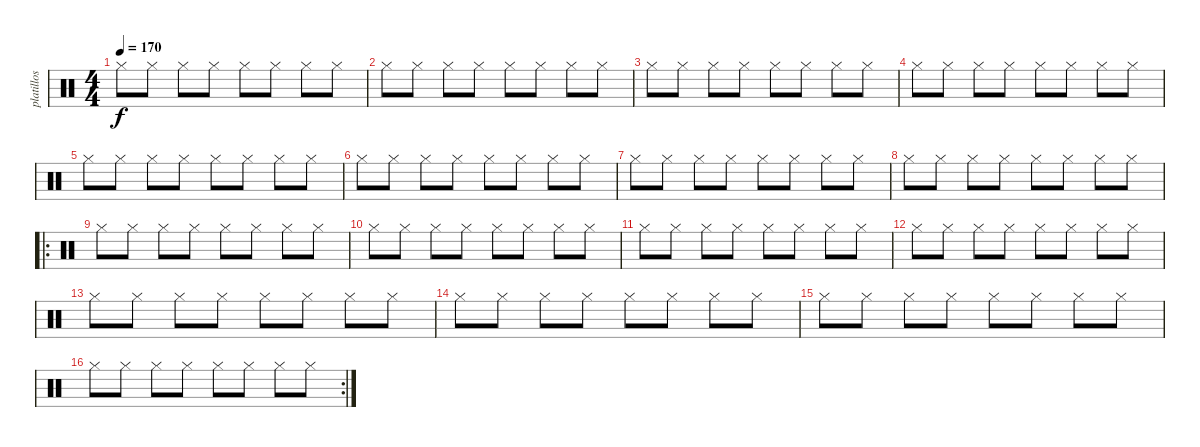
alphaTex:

\track ("platillos" "platillos") {instrument percussion}
\staff {score}
\articulation defaults
\ts (4 4)
\tempo 170
\clef neutral
\ks c "Hi-Hat (closed)".8{dy f} "Hi-Hat (closed)".8 "Hi-Hat (closed)".8 "Hi-Hat (closed)".8 "Hi-Hat (closed)".8 "Hi-Hat (closed)".8 "Hi-Hat (closed)".8 "Hi-Hat (closed)".8
|
"Hi-Hat (closed)".8 "Hi-Hat (closed)".8 "Hi-Hat (closed)".8 "Hi-Hat (closed)".8 "Hi-Hat (closed)".8 "Hi-Hat (closed)".8 "Hi-Hat (closed)".8 "Hi-Hat (closed)".8 |
"Hi-Hat (closed)".8 "Hi-Hat (closed)".8 "Hi-Hat (closed)".8 "Hi-Hat (closed)".8 "Hi-Hat (closed)".8 "Hi-Hat (closed)".8 "Hi-Hat (closed)".8 "Hi-Hat (closed)".8 |
"Hi-Hat (closed)".8 "Hi-Hat (closed)".8 "Hi-Hat (closed)".8 "Hi-Hat (closed)".8 "Hi-Hat (closed)".8 "Hi-Hat (closed)".8 "Hi-Hat (closed)".8 "Hi-Hat (closed)".8 |
"Hi-Hat (closed)".8 "Hi-Hat (closed)".8 "Hi-Hat (closed)".8 "Hi-Hat (closed)".8 "Hi-Hat (closed)".8 "Hi-Hat (closed)".8 "Hi-Hat (closed)".8 "Hi-Hat (closed)".8 |
"Hi-Hat (closed)".8 "Hi-Hat (closed)".8 "Hi-Hat (closed)".8 "Hi-Hat (closed)".8 "Hi-Hat (closed)".8 "Hi-Hat (closed)".8 "Hi-Hat (closed)".8 "Hi-Hat (closed)".8 |
"Hi-Hat (closed)".8 "Hi-Hat (closed)".8 "Hi-Hat (closed)".8 "Hi-Hat (closed)".8 "Hi-Hat (closed)".8 "Hi-Hat (closed)".8 "Hi-Hat (closed)".8 "Hi-Hat (closed)".8 |
"Hi-Hat (closed)".8 "Hi-Hat (closed)".8 "Hi-Hat (closed)".8 "Hi-Hat (closed)".8 "Hi-Hat (closed)".8 "Hi-Hat (closed)".8 "Hi-Hat (closed)".8 "Hi-Hat (closed)".8 |
\ro "Hi-Hat (closed)".8 "Hi-Hat (closed)".8 "Hi-Hat (closed)".8 "Hi-Hat (closed)".8 "Hi-Hat (closed)".8 "Hi-Hat (closed)".8 "Hi-Hat (closed)".8 "Hi-Hat (closed)".8
|
"Hi-Hat (closed)".8 "Hi-Hat (closed)".8 "Hi-Hat (closed)".8 "Hi-Hat (closed)".8 "Hi-Hat (closed)".8 "Hi-Hat (closed)".8 "Hi-Hat (closed)".8 "Hi-Hat (closed)".8 |
"Hi-Hat (closed)".8 "Hi-Hat (closed)".8 "Hi-Hat (closed)".8 "Hi-Hat (closed)".8 "Hi-Hat (closed)".8 "Hi-Hat (closed)".8 "Hi-Hat (closed)".8 "Hi-Hat (closed)".8 |
"Hi-Hat (closed)".8 "Hi-Hat (closed)".8 "Hi-Hat (closed)".8 "Hi-Hat (closed)".8 "Hi-Hat (closed)".8 "Hi-Hat (closed)".8 "Hi-Hat (closed)".8 "Hi-Hat (closed)".8 |
"Hi-Hat (closed)".8 "Hi-Hat (closed)".8 "Hi-Hat (closed)".8 "Hi-Hat (closed)".8 "Hi-Hat (closed)".8 "Hi-Hat (closed)".8 "Hi-Hat (closed)".8 "Hi-Hat (closed)".8 |
"Hi-Hat (closed)".8 "Hi-Hat (closed)".8 "Hi-Hat (closed)".8 "Hi-Hat (closed)".8 "Hi-Hat (closed)".8 "Hi-Hat (closed)".8 "Hi-Hat (closed)".8 "Hi-Hat (closed)".8 |
"Hi-Hat (closed)".8 "Hi-Hat (closed)".8 "Hi-Hat (closed)".8 "Hi-Hat (closed)".8 "Hi-Hat (closed)".8 "Hi-Hat (closed)".8 "Hi-Hat (closed)".8 "Hi-Hat (closed)".8 |
\rc 2 "Hi-Hat (closed)".8 "Hi-Hat (closed)".8 "Hi-Hat (closed)".8 "Hi-Hat (closed)".8 "Hi-Hat (closed)".8 "Hi-Hat (closed)".8 "Hi-Hat (closed)".8 "Hi-Hat (closed)".8
